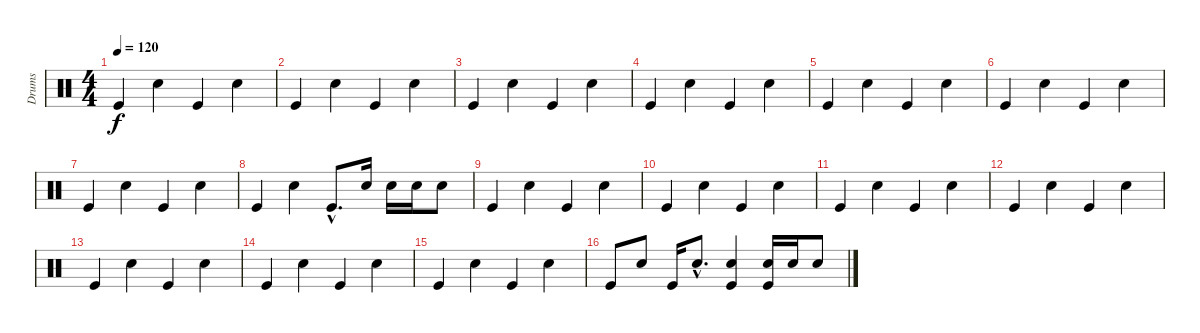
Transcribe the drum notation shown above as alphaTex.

\track ("Drums" "Drums") {instrument percussion}
\staff {score}
\articulation defaults
\ts (4 4)
\tempo 120
\clef neutral
\ks c "Kick (hit)".4{dy f} "Snare (hit) 2".4 "Kick (hit)".4 "Snare (hit) 2".4
|
"Kick (hit)".4 "Snare (hit) 2".4 "Kick (hit)".4 "Snare (hit) 2".4 |
"Kick (hit)".4 "Snare (hit) 2".4 "Kick (hit)".4 "Snare (hit) 2".4 |
"Kick (hit)".4 "Snare (hit) 2".4 "Kick (hit)".4 "Snare (hit) 2".4 |
"Kick (hit)".4 "Snare (hit) 2".4 "Kick (hit)".4 "Snare (hit) 2".4 |
"Kick (hit)".4 "Snare (hit) 2".4 "Kick (hit)".4 "Snare (hit) 2".4 |
"Kick (hit)".4 "Snare (hit) 2".4 "Kick (hit)".4 "Snare (hit) 2".4 |
"Kick (hit)".4 "Snare (hit) 2".4 "Kick (hit)"{hac}.8{d} "Snare (hit) 2".16 "Snare (hit) 2".16 "Snare (hit) 2".16 "Snare (hit) 2".8 |
"Kick (hit)".4 "Snare (hit) 2".4 "Kick (hit)".4 "Snare (hit) 2".4 |
"Kick (hit)".4 "Snare (hit) 2".4 "Kick (hit)".4 "Snare (hit) 2".4 |
"Kick (hit)".4 "Snare (hit) 2".4 "Kick (hit)".4 "Snare (hit) 2".4 |
"Kick (hit)".4 "Snare (hit) 2".4 "Kick (hit)".4 "Snare (hit) 2".4 |
"Kick (hit)".4 "Snare (hit) 2".4 "Kick (hit)".4 "Snare (hit) 2".4 |
"Kick (hit)".4 "Snare (hit) 2".4 "Kick (hit)".4 "Snare (hit) 2".4 |
"Kick (hit)".4 "Snare (hit) 2".4 "Kick (hit)".4 "Snare (hit) 2".4 |
"Kick (hit)".8 "Snare (hit) 2".8 "Kick (hit)".16 "Snare (hit) 2"{hac}.8{d} ("Kick (hit)" "Snare (hit) 2").4 ("Kick (hit)" "Snare (hit) 2").16 "Snare (hit) 2".16 "Snare (hit) 2".8
